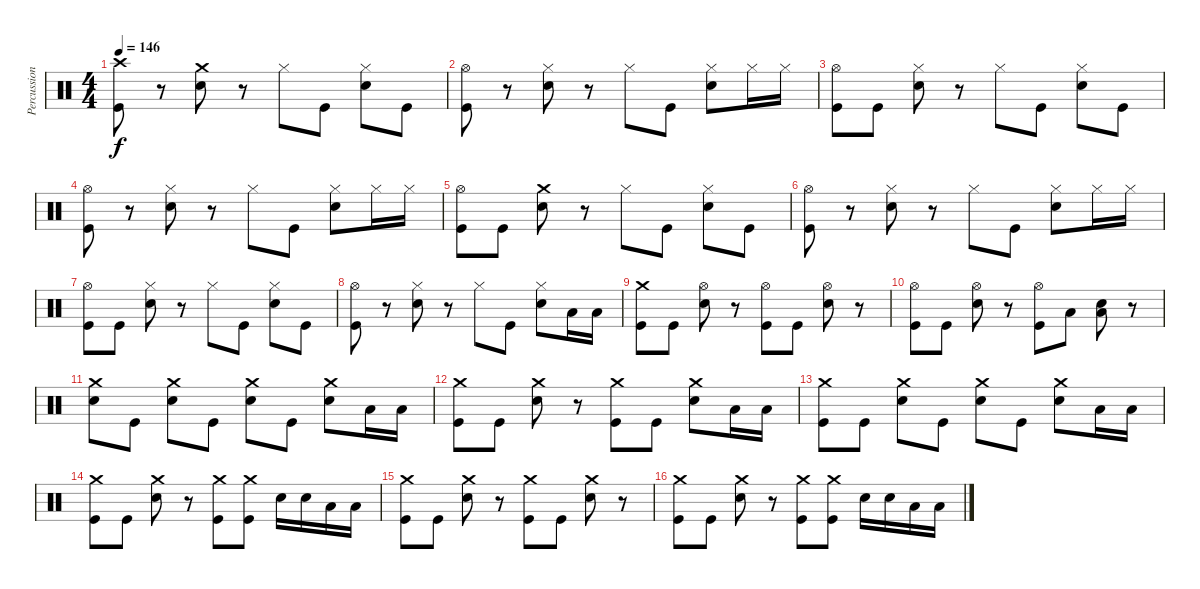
\track ("Percussion" "Percussion") {instrument percussion}
\staff {score}
\articulation defaults
\ts (4 4)
\tempo 146
\clef neutral
\ks c
("Crash high (hit)" "Kick (hit)").8{dy f} r.8 ("Crash medium (hit)" "Snare (hit) 2").8 r.8 "Hi-Hat (closed)".8 "Kick (hit)".8 ("Hi-Hat (closed)" "Snare (hit) 2").8 "Kick (hit)".8 |
("Hi-Hat (open)" "Kick (hit)").8 r.8 ("Hi-Hat (closed)" "Snare (hit) 2").8 r.8 "Hi-Hat (closed)".8 "Kick (hit)".8 ("Hi-Hat (closed)" "Snare (hit) 2").8 "Hi-Hat (closed)".16 "Hi-Hat (closed)".16 |
("Hi-Hat (open)" "Kick (hit)").8 "Kick (hit)".8 ("Hi-Hat (closed)" "Snare (hit) 2").8 r.8 "Hi-Hat (closed)".8 "Kick (hit)".8 ("Hi-Hat (closed)" "Snare (hit) 2").8 "Kick (hit)".8 |
("Hi-Hat (open)" "Kick (hit)").8 r.8 ("Hi-Hat (closed)" "Snare (hit) 2").8 r.8 "Hi-Hat (closed)".8 "Kick (hit)".8 ("Hi-Hat (closed)" "Snare (hit) 2").8 "Hi-Hat (closed)".16 "Hi-Hat (closed)".16 |
("Hi-Hat (open)" "Kick (hit)").8 "Kick (hit)".8 ("Crash medium (hit)" "Snare (hit) 2").8 r.8 "Hi-Hat (closed)".8 "Kick (hit)".8 ("Hi-Hat (closed)" "Snare (hit) 2").8 "Kick (hit)".8 |
("Hi-Hat (open)" "Kick (hit)").8 r.8 ("Hi-Hat (closed)" "Snare (hit) 2").8 r.8 "Hi-Hat (closed)".8 "Kick (hit)".8 ("Hi-Hat (closed)" "Snare (hit) 2").8 "Hi-Hat (closed)".16 "Hi-Hat (closed)".16 |
("Hi-Hat (open)" "Kick (hit)").8 "Kick (hit)".8 ("Hi-Hat (closed)" "Snare (hit) 2").8 r.8 "Hi-Hat (closed)".8 "Kick (hit)".8 ("Hi-Hat (closed)" "Snare (hit) 2").8 "Kick (hit)".8 |
("Hi-Hat (open)" "Kick (hit)").8 r.8 ("Hi-Hat (closed)" "Snare (hit) 2").8 r.8 "Hi-Hat (closed)".8 "Kick (hit)".8 ("Hi-Hat (closed)" "Snare (hit) 2").8 "Low Floor Tom (hit)".16 "Low Floor Tom (hit)".16 |
("Crash medium (hit)" "Kick (hit)").8 "Kick (hit)".8 ("Hi-Hat (open)" "Snare (hit) 2").8 r.8 ("Hi-Hat (open)" "Kick (hit)").8 "Kick (hit)".8 ("Hi-Hat (open)" "Snare (hit) 2").8 r.8 |
("Hi-Hat (open)" "Kick (hit)").8 "Kick (hit)".8 ("Hi-Hat (open)" "Snare (hit) 2").8 r.8 ("Hi-Hat (open)" "Kick (hit)").8 "Low Tom (hit)".8 ("Low Floor Tom (hit)" "Snare (hit) 2").8 r.8 |
("Crash medium (hit)" "Snare (hit) 2").8 "Kick (hit)".8 ("Crash medium (hit)" "Snare (hit) 2").8 "Kick (hit)".8 ("Crash medium (hit)" "Snare (hit) 2").8 "Kick (hit)".8 ("Crash medium (hit)" "Snare (hit) 2").8 "Low Floor Tom (hit)".16 "Low Floor Tom (hit)".16 |
("Crash medium (hit)" "Kick (hit)").8 "Kick (hit)".8 ("Crash medium (hit)" "Snare (hit) 2").8 r.8 ("Crash medium (hit)" "Kick (hit)").8 "Kick (hit)".8 ("Crash medium (hit)" "Snare (hit) 2").8 "Low Floor Tom (hit)".16 "Low Floor Tom (hit)".16 |
("Crash medium (hit)" "Kick (hit)").8 "Kick (hit)".8 ("Crash medium (hit)" "Snare (hit) 2").8 "Kick (hit)".8 ("Crash medium (hit)" "Snare (hit) 2").8 "Kick (hit)".8 ("Crash medium (hit)" "Snare (hit) 2").8 "Low Floor Tom (hit)".16 "Low Floor Tom (hit)".16 |
("Crash medium (hit)" "Kick (hit)").8 "Kick (hit)".8 ("Crash medium (hit)" "Snare (hit) 2").8 r.8 ("Crash medium (hit)" "Kick (hit)").8 ("Crash medium (hit)" "Kick (hit)").8 "Snare (hit) 2".16 "Snare (hit) 2".16 "Low Tom (hit)".16 "Low Floor Tom (hit)".16 |
("Crash medium (hit)" "Kick (hit)").8 "Kick (hit)".8 ("Crash medium (hit)" "Snare (hit) 2").8 r.8 ("Crash medium (hit)" "Kick (hit)").8 "Kick (hit)".8 ("Crash medium (hit)" "Snare (hit) 2").8 r.8 |
("Crash medium (hit)" "Kick (hit)").8 "Kick (hit)".8 ("Crash medium (hit)" "Snare (hit) 2").8 r.8 ("Crash medium (hit)" "Kick (hit)").8 ("Crash medium (hit)" "Kick (hit)").8 "Snare (hit) 2".16 "Snare (hit) 2".16 "Low Tom (hit)".16 "Low Floor Tom (hit)".16
